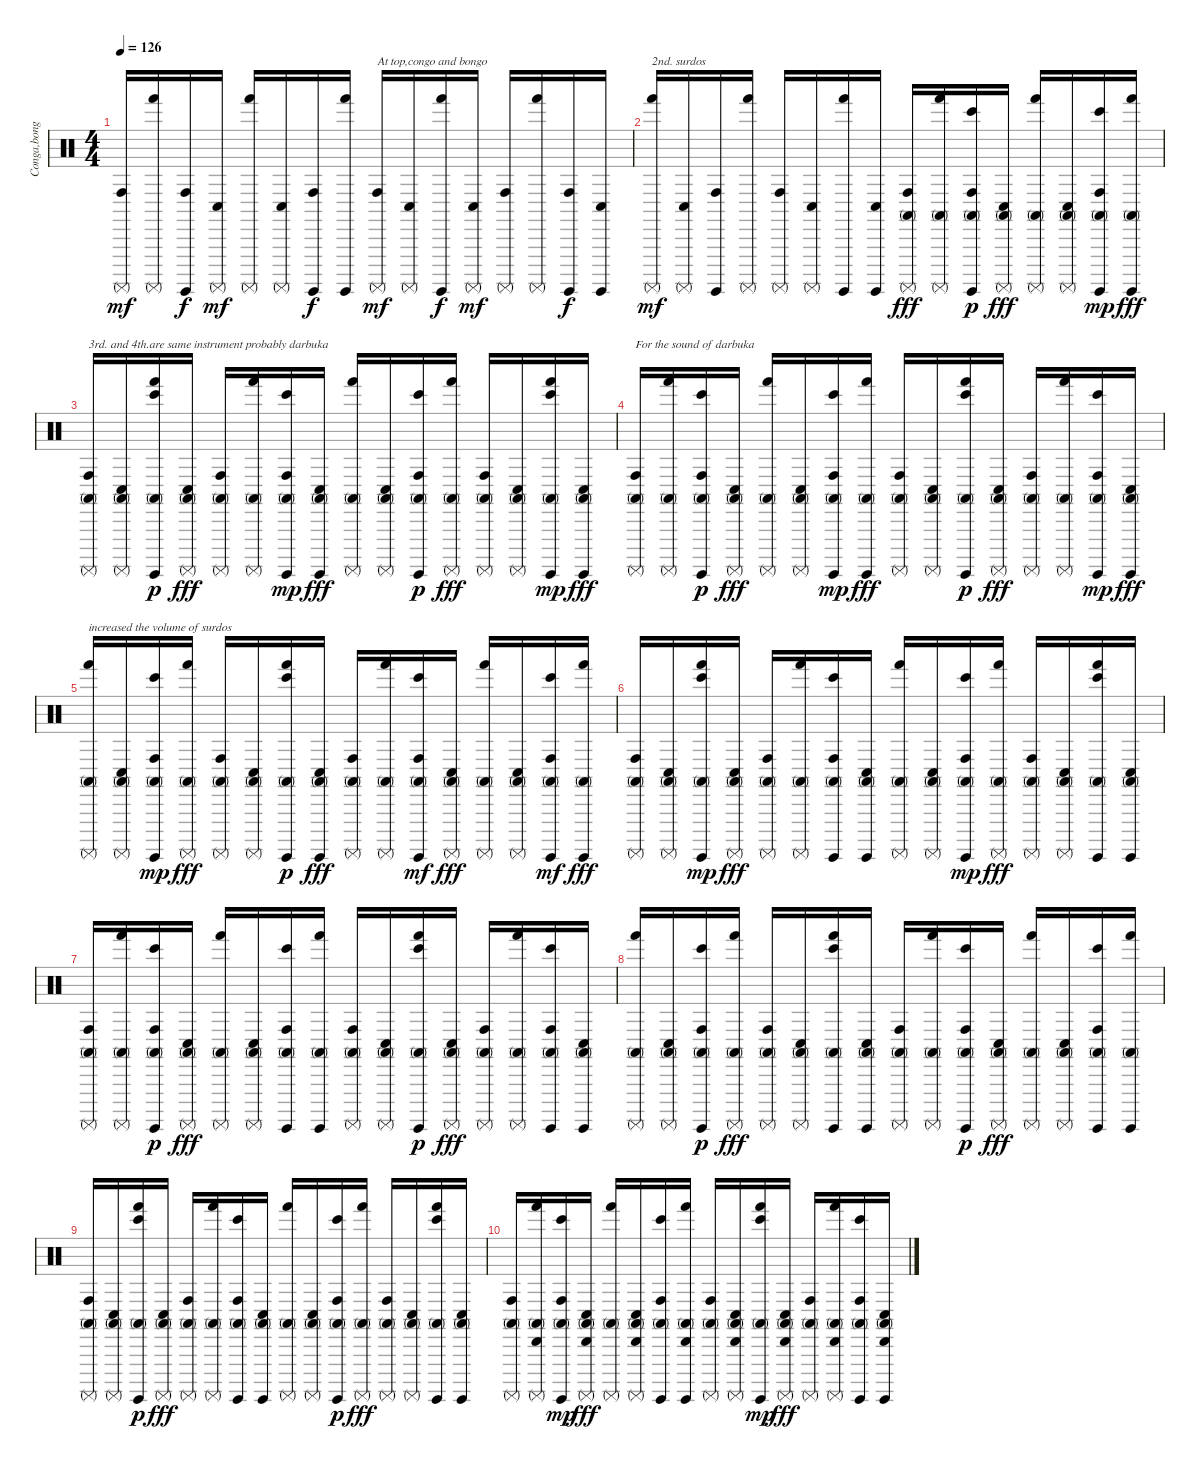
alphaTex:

\track ("Conga,bongo,surdo" "Conga,bong") {instrument percussion}
\staff {score}
\articulation defaults
\ts (4 4)
\tempo 126
\clef neutral
\ks c
("Conga high (hit)" "Surdo (mute)").16{dy mf} ("Hand (hit)" "Surdo (mute)").16 ("Conga high (hit)" "Surdo (hit)").16{dy f} ("Conga low (hit)" "Surdo (mute)").16{dy mf} ("Hand (hit)" "Surdo (mute)").16 ("Conga low (hit)" "Surdo (mute)").16 ("Conga high (hit)" "Surdo (hit)").16{dy f} ("Hand (hit)" "Surdo (hit)").16 ("Conga high (hit)" "Surdo (mute)").16{txt "At top,congo and bongo" dy mf} ("Conga low (hit)" "Surdo (mute)").16 ("Hand (hit)" "Surdo (hit)").16{dy f} ("Conga low (hit)" "Surdo (mute)").16{dy mf} ("Conga high (hit)" "Surdo (mute)").16 ("Hand (hit)" "Surdo (mute)").16 ("Conga high (hit)" "Surdo (hit)").16{dy f} ("Conga low (hit)" "Surdo (hit)").16 |
("Hand (hit)" "Surdo (mute)").16{txt "2nd. surdos" dy mf} ("Conga low (hit)" "Surdo (mute)").16 ("Conga high (hit)" "Surdo (hit)").16 ("Hand (hit)" "Surdo (mute)").16 ("Conga high (hit)" "Surdo (mute)").16 ("Conga low (hit)" "Surdo (mute)").16 ("Hand (hit)" "Surdo (hit)").16 ("Conga low (hit)" "Surdo (hit)").16 ("Conga high (hit)" "Surdo (mute)" "Conga high (mute)").16{dy fff} ("Hand (hit)" "Surdo (mute)" "Conga high (mute)").16 ("Conga high (hit)" "Surdo (hit)" "Conga high (mute)" "Bongo High (hit)").16{dy p} ("Conga low (hit)" "Surdo (mute)" "Conga high (mute)").16{dy fff} ("Hand (hit)" "Surdo (mute)" "Conga high (mute)").16 ("Conga low (hit)" "Surdo (mute)" "Conga high (mute)").16 ("Conga high (hit)" "Surdo (hit)" "Conga high (mute)" "Bongo High (hit)").16{dy mp} ("Hand (hit)" "Surdo (hit)" "Conga high (mute)").16{dy fff} |
("Conga high (hit)" "Surdo (mute)" "Conga high (mute)").16{txt "3rd. and 4th.are same instrument probably darbuka"} ("Conga low (hit)" "Surdo (mute)" "Conga high (mute)").16 ("Hand (hit)" "Surdo (hit)" "Conga high (mute)" "Bongo High (hit)").16{dy p} ("Conga low (hit)" "Surdo (mute)" "Conga high (mute)").16{dy fff} ("Conga high (hit)" "Surdo (mute)" "Conga high (mute)").16 ("Hand (hit)" "Surdo (mute)" "Conga high (mute)").16 ("Conga high (hit)" "Surdo (hit)" "Conga high (mute)" "Bongo High (hit)").16{dy mp} ("Conga low (hit)" "Surdo (hit)" "Conga high (mute)").16{dy fff} ("Hand (hit)" "Surdo (mute)" "Conga high (mute)").16 ("Conga low (hit)" "Surdo (mute)" "Conga high (mute)").16 ("Conga high (hit)" "Surdo (hit)" "Conga high (mute)" "Bongo High (hit)").16{dy p} ("Hand (hit)" "Surdo (mute)" "Conga high (mute)").16{dy fff} ("Conga high (hit)" "Surdo (mute)" "Conga high (mute)").16 ("Conga low (hit)" "Surdo (mute)" "Conga high (mute)").16 ("Hand (hit)" "Surdo (hit)" "Conga high (mute)" "Bongo High (hit)").16{dy mp} ("Conga low (hit)" "Surdo (hit)" "Conga high (mute)").16{dy fff} |
("Conga high (hit)" "Surdo (mute)" "Conga high (mute)").16{txt "For the sound of darbuka"} ("Hand (hit)" "Surdo (mute)" "Conga high (mute)").16 ("Conga high (hit)" "Surdo (hit)" "Conga high (mute)" "Bongo High (hit)").16{dy p} ("Conga low (hit)" "Surdo (mute)" "Conga high (mute)").16{dy fff} ("Hand (hit)" "Surdo (mute)" "Conga high (mute)").16 ("Conga low (hit)" "Surdo (mute)" "Conga high (mute)").16 ("Conga high (hit)" "Surdo (hit)" "Conga high (mute)" "Bongo High (hit)").16{dy mp} ("Hand (hit)" "Surdo (hit)" "Conga high (mute)").16{dy fff} ("Conga high (hit)" "Surdo (mute)" "Conga high (mute)").16 ("Conga low (hit)" "Surdo (mute)" "Conga high (mute)").16 ("Hand (hit)" "Surdo (hit)" "Conga high (mute)" "Bongo High (hit)").16{dy p} ("Conga low (hit)" "Surdo (mute)" "Conga high (mute)").16{dy fff} ("Conga high (hit)" "Surdo (mute)" "Conga high (mute)").16 ("Hand (hit)" "Surdo (mute)" "Conga high (mute)").16 ("Conga high (hit)" "Surdo (hit)" "Conga high (mute)" "Bongo High (hit)").16{dy mp} ("Conga low (hit)" "Surdo (hit)" "Conga high (mute)").16{dy fff} |
("Hand (hit)" "Surdo (mute)" "Conga high (mute)").16{txt "increased the volume of surdos"} ("Conga low (hit)" "Surdo (mute)" "Conga high (mute)").16 ("Conga high (hit)" "Surdo (hit)" "Conga high (mute)" "Bongo High (hit)").16{dy mp} ("Hand (hit)" "Surdo (mute)" "Conga high (mute)").16{dy fff} ("Conga high (hit)" "Surdo (mute)" "Conga high (mute)").16 ("Conga low (hit)" "Surdo (mute)" "Conga high (mute)").16 ("Hand (hit)" "Surdo (hit)" "Conga high (mute)" "Bongo High (hit)").16{dy p} ("Conga low (hit)" "Surdo (hit)" "Conga high (mute)").16{dy fff} ("Conga high (hit)" "Surdo (mute)" "Conga high (mute)").16 ("Hand (hit)" "Surdo (mute)" "Conga high (mute)").16 ("Conga high (hit)" "Surdo (hit)" "Conga high (mute)" "Bongo High (hit)").16{dy mf} ("Conga low (hit)" "Surdo (mute)" "Conga high (mute)").16{dy fff} ("Hand (hit)" "Surdo (mute)" "Conga high (mute)").16 ("Conga low (hit)" "Surdo (mute)" "Conga high (mute)").16 ("Conga high (hit)" "Surdo (hit)" "Conga high (mute)" "Bongo High (hit)").16{dy mf} ("Hand (hit)" "Surdo (hit)" "Conga high (mute)").16{dy fff} |
("Conga high (hit)" "Surdo (mute)" "Conga high (mute)").16 ("Conga low (hit)" "Surdo (mute)" "Conga high (mute)").16 ("Hand (hit)" "Surdo (hit)" "Conga high (mute)" "Bongo High (hit)").16{dy mp} ("Conga low (hit)" "Surdo (mute)" "Conga high (mute)").16{dy fff} ("Conga high (hit)" "Surdo (mute)" "Conga high (mute)").16 ("Hand (hit)" "Surdo (mute)" "Conga high (mute)").16 ("Conga high (hit)" "Surdo (hit)" "Conga high (mute)" "Bongo High (hit)").16 ("Conga low (hit)" "Surdo (hit)" "Conga high (mute)").16 ("Hand (hit)" "Surdo (mute)" "Conga high (mute)").16 ("Conga low (hit)" "Surdo (mute)" "Conga high (mute)").16 ("Conga high (hit)" "Surdo (hit)" "Conga high (mute)" "Bongo High (hit)").16{dy mp} ("Hand (hit)" "Surdo (mute)" "Conga high (mute)").16{dy fff} ("Conga high (hit)" "Surdo (mute)" "Conga high (mute)").16 ("Conga low (hit)" "Surdo (mute)" "Conga high (mute)").16 ("Hand (hit)" "Surdo (hit)" "Conga high (mute)" "Bongo High (hit)").16 ("Conga low (hit)" "Surdo (hit)" "Conga high (mute)").16 |
("Conga high (hit)" "Surdo (mute)" "Conga high (mute)").16 ("Hand (hit)" "Surdo (mute)" "Conga high (mute)").16 ("Conga high (hit)" "Surdo (hit)" "Conga high (mute)" "Bongo High (hit)").16{dy p} ("Conga low (hit)" "Surdo (mute)" "Conga high (mute)").16{dy fff} ("Hand (hit)" "Surdo (mute)" "Conga high (mute)").16 ("Conga low (hit)" "Surdo (mute)" "Conga high (mute)").16 ("Conga high (hit)" "Surdo (hit)" "Conga high (mute)" "Bongo High (hit)").16 ("Hand (hit)" "Surdo (hit)" "Conga high (mute)").16 ("Conga high (hit)" "Surdo (mute)" "Conga high (mute)").16 ("Conga low (hit)" "Surdo (mute)" "Conga high (mute)").16 ("Hand (hit)" "Surdo (hit)" "Conga high (mute)" "Bongo High (hit)").16{dy p} ("Conga low (hit)" "Surdo (mute)" "Conga high (mute)").16{dy fff} ("Conga high (hit)" "Surdo (mute)" "Conga high (mute)").16 ("Hand (hit)" "Surdo (mute)" "Conga high (mute)").16 ("Conga high (hit)" "Surdo (hit)" "Conga high (mute)" "Bongo High (hit)").16 ("Conga low (hit)" "Surdo (hit)" "Conga high (mute)").16 |
("Hand (hit)" "Surdo (mute)" "Conga high (mute)").16 ("Conga low (hit)" "Surdo (mute)" "Conga high (mute)").16 ("Conga high (hit)" "Surdo (hit)" "Conga high (mute)" "Bongo High (hit)").16{dy p} ("Hand (hit)" "Surdo (mute)" "Conga high (mute)").16{dy fff} ("Conga high (hit)" "Surdo (mute)" "Conga high (mute)").16 ("Conga low (hit)" "Surdo (mute)" "Conga high (mute)").16 ("Hand (hit)" "Surdo (hit)" "Conga high (mute)" "Bongo High (hit)").16 ("Conga low (hit)" "Surdo (hit)" "Conga high (mute)").16 ("Conga high (hit)" "Surdo (mute)" "Conga high (mute)").16 ("Hand (hit)" "Surdo (mute)" "Conga high (mute)").16 ("Conga high (hit)" "Surdo (hit)" "Conga high (mute)" "Bongo High (hit)").16{dy p} ("Conga low (hit)" "Surdo (mute)" "Conga high (mute)").16{dy fff} ("Hand (hit)" "Surdo (mute)" "Conga high (mute)").16 ("Conga low (hit)" "Surdo (mute)" "Conga high (mute)").16 ("Conga high (hit)" "Surdo (hit)" "Conga high (mute)" "Bongo High (hit)").16 ("Hand (hit)" "Surdo (hit)" "Conga high (mute)").16 |
("Conga high (hit)" "Surdo (mute)" "Conga high (mute)").16 ("Conga low (hit)" "Surdo (mute)" "Conga high (mute)").16 ("Hand (hit)" "Surdo (hit)" "Conga high (mute)" "Bongo High (hit)").16{dy p} ("Conga low (hit)" "Surdo (mute)" "Conga high (mute)").16{dy fff} ("Conga high (hit)" "Surdo (mute)" "Conga high (mute)").16 ("Hand (hit)" "Surdo (mute)" "Conga high (mute)").16 ("Conga high (hit)" "Surdo (hit)" "Conga high (mute)" "Bongo High (hit)").16 ("Conga low (hit)" "Surdo (hit)" "Conga high (mute)").16 ("Hand (hit)" "Surdo (mute)" "Conga high (mute)").16 ("Conga low (hit)" "Surdo (mute)" "Conga high (mute)").16 ("Conga high (hit)" "Surdo (hit)" "Conga high (mute)" "Bongo High (hit)").16{dy p} ("Hand (hit)" "Surdo (mute)" "Conga high (mute)").16{dy fff} ("Conga high (hit)" "Surdo (mute)" "Conga high (mute)").16 ("Conga low (hit)" "Surdo (mute)" "Conga high (mute)").16 ("Hand (hit)" "Surdo (hit)" "Conga high (mute)" "Bongo High (hit)").16 ("Conga low (hit)" "Surdo (hit)" "Conga high (mute)").16 |
("Conga high (hit)" "Surdo (mute)" "Conga high (mute)").16 ("Hand (hit)" "Surdo (mute)" "Conga high (mute)" "Cabasa (hit)").16 ("Conga high (hit)" "Surdo (hit)" "Conga high (mute)" "Bongo High (hit)").16{dy mp} ("Conga low (hit)" "Surdo (mute)" "Conga high (mute)" "Cabasa (hit)").16{dy fff} ("Hand (hit)" "Surdo (mute)" "Conga high (mute)").16 ("Conga low (hit)" "Surdo (mute)" "Conga high (mute)" "Cabasa (hit)").16 ("Conga high (hit)" "Surdo (hit)" "Conga high (mute)" "Bongo High (hit)").16 ("Hand (hit)" "Surdo (hit)" "Conga high (mute)" "Cabasa (hit)").16 ("Conga high (hit)" "Surdo (mute)" "Conga high (mute)").16 ("Conga low (hit)" "Surdo (mute)" "Conga high (mute)" "Cabasa (hit)").16 ("Hand (hit)" "Surdo (hit)" "Conga high (mute)" "Bongo High (hit)").16{dy mp} ("Conga low (hit)" "Surdo (mute)" "Conga high (mute)" "Cabasa (hit)").16{dy fff} ("Conga high (hit)" "Surdo (mute)" "Conga high (mute)").16 ("Hand (hit)" "Surdo (mute)" "Conga high (mute)" "Cabasa (hit)").16 ("Conga high (hit)" "Surdo (hit)" "Conga high (mute)" "Bongo High (hit)").16 ("Conga low (hit)" "Surdo (hit)" "Conga high (mute)" "Cabasa (hit)").16
